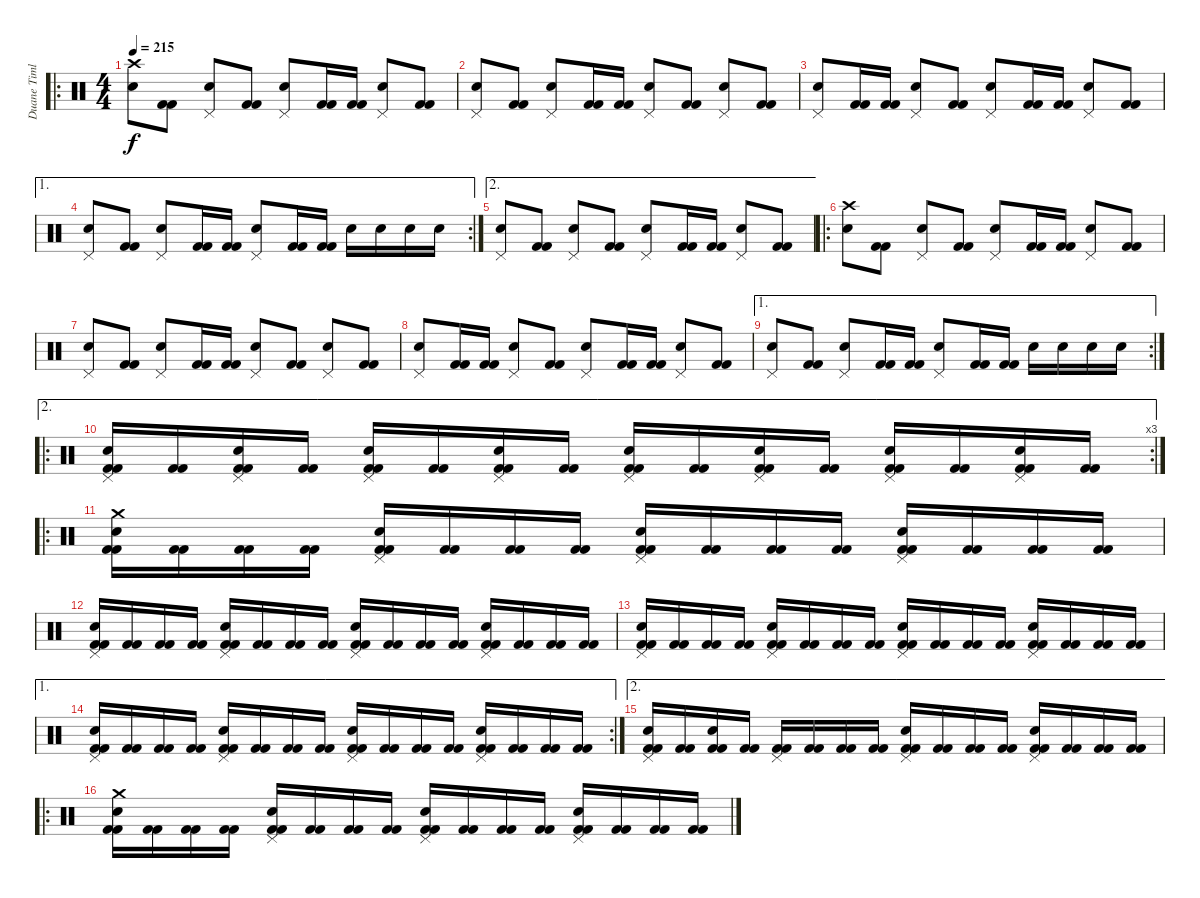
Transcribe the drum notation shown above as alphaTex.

\track ("Duane Timlin" "Duane Timl") {instrument percussion}
\staff {score}
\articulation defaults
\ro
\ts (4 4)
\tempo 215
\clef neutral
\ks c
("Crash high (hit)" "Electric Snare (hit)").8{dy f} ("Kick (hit) 2" "Kick (hit) 2").8 ("Pedal Hi-Hat (hit)" "Electric Snare (hit)").8 ("Kick (hit) 2" "Kick (hit) 2").8 ("Pedal Hi-Hat (hit)" "Electric Snare (hit)").8 ("Kick (hit) 2" "Kick (hit) 2").16 ("Kick (hit) 2" "Kick (hit) 2").16 ("Pedal Hi-Hat (hit)" "Electric Snare (hit)").8 ("Kick (hit) 2" "Kick (hit) 2").8 |
("Pedal Hi-Hat (hit)" "Electric Snare (hit)").8 ("Kick (hit) 2" "Kick (hit) 2").8 ("Pedal Hi-Hat (hit)" "Electric Snare (hit)").8 ("Kick (hit) 2" "Kick (hit) 2").16 ("Kick (hit) 2" "Kick (hit) 2").16 ("Pedal Hi-Hat (hit)" "Electric Snare (hit)").8 ("Kick (hit) 2" "Kick (hit) 2").8 ("Pedal Hi-Hat (hit)" "Electric Snare (hit)").8 ("Kick (hit) 2" "Kick (hit) 2").8 |
("Pedal Hi-Hat (hit)" "Electric Snare (hit)").8 ("Kick (hit) 2" "Kick (hit) 2").16 ("Kick (hit) 2" "Kick (hit) 2").16 ("Pedal Hi-Hat (hit)" "Electric Snare (hit)").8 ("Kick (hit) 2" "Kick (hit) 2").8 ("Pedal Hi-Hat (hit)" "Electric Snare (hit)").8 ("Kick (hit) 2" "Kick (hit) 2").16 ("Kick (hit) 2" "Kick (hit) 2").16 ("Pedal Hi-Hat (hit)" "Electric Snare (hit)").8 ("Kick (hit) 2" "Kick (hit) 2").8 |
\ae 1
\rc 2
("Pedal Hi-Hat (hit)" "Electric Snare (hit)").8 ("Kick (hit) 2" "Kick (hit) 2").8 ("Pedal Hi-Hat (hit)" "Electric Snare (hit)").8 ("Kick (hit) 2" "Kick (hit) 2").16 ("Kick (hit) 2" "Kick (hit) 2").16 ("Pedal Hi-Hat (hit)" "Electric Snare (hit)").8 ("Kick (hit) 2" "Kick (hit) 2").16 ("Kick (hit) 2" "Kick (hit) 2").16 "Electric Snare (hit)".16 "Electric Snare (hit)".16 "Electric Snare (hit)".16 "Electric Snare (hit)".16 |
\ae 2
("Pedal Hi-Hat (hit)" "Electric Snare (hit)").8 ("Kick (hit) 2" "Kick (hit) 2").8 ("Pedal Hi-Hat (hit)" "Electric Snare (hit)").8 ("Kick (hit) 2" "Kick (hit) 2").8 ("Pedal Hi-Hat (hit)" "Electric Snare (hit)").8 ("Kick (hit) 2" "Kick (hit) 2").16 ("Kick (hit) 2" "Kick (hit) 2").16 ("Pedal Hi-Hat (hit)" "Electric Snare (hit)").8 ("Kick (hit) 2" "Kick (hit) 2").8 |
\ro
("Crash high (hit)" "Electric Snare (hit)").8 ("Kick (hit) 2" "Kick (hit) 2").8 ("Pedal Hi-Hat (hit)" "Electric Snare (hit)").8 ("Kick (hit) 2" "Kick (hit) 2").8 ("Pedal Hi-Hat (hit)" "Electric Snare (hit)").8 ("Kick (hit) 2" "Kick (hit) 2").16 ("Kick (hit) 2" "Kick (hit) 2").16 ("Pedal Hi-Hat (hit)" "Electric Snare (hit)").8 ("Kick (hit) 2" "Kick (hit) 2").8 |
("Pedal Hi-Hat (hit)" "Electric Snare (hit)").8 ("Kick (hit) 2" "Kick (hit) 2").8 ("Pedal Hi-Hat (hit)" "Electric Snare (hit)").8 ("Kick (hit) 2" "Kick (hit) 2").16 ("Kick (hit) 2" "Kick (hit) 2").16 ("Pedal Hi-Hat (hit)" "Electric Snare (hit)").8 ("Kick (hit) 2" "Kick (hit) 2").8 ("Pedal Hi-Hat (hit)" "Electric Snare (hit)").8 ("Kick (hit) 2" "Kick (hit) 2").8 |
("Pedal Hi-Hat (hit)" "Electric Snare (hit)").8 ("Kick (hit) 2" "Kick (hit) 2").16 ("Kick (hit) 2" "Kick (hit) 2").16 ("Pedal Hi-Hat (hit)" "Electric Snare (hit)").8 ("Kick (hit) 2" "Kick (hit) 2").8 ("Pedal Hi-Hat (hit)" "Electric Snare (hit)").8 ("Kick (hit) 2" "Kick (hit) 2").16 ("Kick (hit) 2" "Kick (hit) 2").16 ("Pedal Hi-Hat (hit)" "Electric Snare (hit)").8 ("Kick (hit) 2" "Kick (hit) 2").8 |
\ae 1
\rc 2
("Pedal Hi-Hat (hit)" "Electric Snare (hit)").8 ("Kick (hit) 2" "Kick (hit) 2").8 ("Pedal Hi-Hat (hit)" "Electric Snare (hit)").8 ("Kick (hit) 2" "Kick (hit) 2").16 ("Kick (hit) 2" "Kick (hit) 2").16 ("Pedal Hi-Hat (hit)" "Electric Snare (hit)").8 ("Kick (hit) 2" "Kick (hit) 2").16 ("Kick (hit) 2" "Kick (hit) 2").16 "Electric Snare (hit)".16 "Electric Snare (hit)".16 "Electric Snare (hit)".16 "Electric Snare (hit)".16 |
\ae 2
\ro
\rc 3
("Pedal Hi-Hat (hit)" "Electric Snare (hit)" "Kick (hit) 2" "Kick (hit) 2").16 ("Kick (hit) 2" "Kick (hit) 2").16 ("Pedal Hi-Hat (hit)" "Electric Snare (hit)" "Kick (hit) 2" "Kick (hit) 2").16 ("Kick (hit) 2" "Kick (hit) 2").16 ("Pedal Hi-Hat (hit)" "Electric Snare (hit)" "Kick (hit) 2" "Kick (hit) 2").16 ("Kick (hit) 2" "Kick (hit) 2").16 ("Pedal Hi-Hat (hit)" "Electric Snare (hit)" "Kick (hit) 2" "Kick (hit) 2").16 ("Kick (hit) 2" "Kick (hit) 2").16 ("Pedal Hi-Hat (hit)" "Electric Snare (hit)" "Kick (hit) 2" "Kick (hit) 2").16 ("Kick (hit) 2" "Kick (hit) 2").16 ("Pedal Hi-Hat (hit)" "Electric Snare (hit)" "Kick (hit) 2" "Kick (hit) 2").16 ("Kick (hit) 2" "Kick (hit) 2").16 ("Pedal Hi-Hat (hit)" "Electric Snare (hit)" "Kick (hit) 2" "Kick (hit) 2").16 ("Kick (hit) 2" "Kick (hit) 2").16 ("Pedal Hi-Hat (hit)" "Electric Snare (hit)" "Kick (hit) 2" "Kick (hit) 2").16 ("Kick (hit) 2" "Kick (hit) 2").16 |
\ro
("Crash medium (hit)" "Electric Snare (hit)" "Kick (hit) 2" "Kick (hit) 2").16 ("Kick (hit) 2" "Kick (hit) 2").16 ("Kick (hit) 2" "Kick (hit) 2").16 ("Kick (hit) 2" "Kick (hit) 2").16 ("Pedal Hi-Hat (hit)" "Electric Snare (hit)" "Kick (hit) 2" "Kick (hit) 2").16 ("Kick (hit) 2" "Kick (hit) 2").16 ("Kick (hit) 2" "Kick (hit) 2").16 ("Kick (hit) 2" "Kick (hit) 2").16 ("Pedal Hi-Hat (hit)" "Electric Snare (hit)" "Kick (hit) 2" "Kick (hit) 2").16 ("Kick (hit) 2" "Kick (hit) 2").16 ("Kick (hit) 2" "Kick (hit) 2").16 ("Kick (hit) 2" "Kick (hit) 2").16 ("Pedal Hi-Hat (hit)" "Electric Snare (hit)" "Kick (hit) 2" "Kick (hit) 2").16 ("Kick (hit) 2" "Kick (hit) 2").16 ("Kick (hit) 2" "Kick (hit) 2").16 ("Kick (hit) 2" "Kick (hit) 2").16 |
("Pedal Hi-Hat (hit)" "Electric Snare (hit)" "Kick (hit) 2" "Kick (hit) 2").16 ("Kick (hit) 2" "Kick (hit) 2").16 ("Kick (hit) 2" "Kick (hit) 2").16 ("Kick (hit) 2" "Kick (hit) 2").16 ("Pedal Hi-Hat (hit)" "Electric Snare (hit)" "Kick (hit) 2" "Kick (hit) 2").16 ("Kick (hit) 2" "Kick (hit) 2").16 ("Kick (hit) 2" "Kick (hit) 2").16 ("Kick (hit) 2" "Kick (hit) 2").16 ("Pedal Hi-Hat (hit)" "Electric Snare (hit)" "Kick (hit) 2" "Kick (hit) 2").16 ("Kick (hit) 2" "Kick (hit) 2").16 ("Kick (hit) 2" "Kick (hit) 2").16 ("Kick (hit) 2" "Kick (hit) 2").16 ("Pedal Hi-Hat (hit)" "Electric Snare (hit)" "Kick (hit) 2" "Kick (hit) 2").16 ("Kick (hit) 2" "Kick (hit) 2").16 ("Kick (hit) 2" "Kick (hit) 2").16 ("Kick (hit) 2" "Kick (hit) 2").16 |
("Pedal Hi-Hat (hit)" "Electric Snare (hit)" "Kick (hit) 2" "Kick (hit) 2").16 ("Kick (hit) 2" "Kick (hit) 2").16 ("Kick (hit) 2" "Kick (hit) 2").16 ("Kick (hit) 2" "Kick (hit) 2").16 ("Pedal Hi-Hat (hit)" "Electric Snare (hit)" "Kick (hit) 2" "Kick (hit) 2").16 ("Kick (hit) 2" "Kick (hit) 2").16 ("Kick (hit) 2" "Kick (hit) 2").16 ("Kick (hit) 2" "Kick (hit) 2").16 ("Pedal Hi-Hat (hit)" "Electric Snare (hit)" "Kick (hit) 2" "Kick (hit) 2").16 ("Kick (hit) 2" "Kick (hit) 2").16 ("Kick (hit) 2" "Kick (hit) 2").16 ("Kick (hit) 2" "Kick (hit) 2").16 ("Pedal Hi-Hat (hit)" "Electric Snare (hit)" "Kick (hit) 2" "Kick (hit) 2").16 ("Kick (hit) 2" "Kick (hit) 2").16 ("Kick (hit) 2" "Kick (hit) 2").16 ("Kick (hit) 2" "Kick (hit) 2").16 |
\ae 1
\rc 2
("Pedal Hi-Hat (hit)" "Electric Snare (hit)" "Kick (hit) 2" "Kick (hit) 2").16 ("Kick (hit) 2" "Kick (hit) 2").16 ("Kick (hit) 2" "Kick (hit) 2").16 ("Kick (hit) 2" "Kick (hit) 2").16 ("Pedal Hi-Hat (hit)" "Electric Snare (hit)" "Kick (hit) 2" "Kick (hit) 2").16 ("Kick (hit) 2" "Kick (hit) 2").16 ("Kick (hit) 2" "Kick (hit) 2").16 ("Kick (hit) 2" "Kick (hit) 2").16 ("Pedal Hi-Hat (hit)" "Electric Snare (hit)" "Kick (hit) 2" "Kick (hit) 2").16 ("Kick (hit) 2" "Kick (hit) 2").16 ("Kick (hit) 2" "Kick (hit) 2").16 ("Kick (hit) 2" "Kick (hit) 2").16 ("Pedal Hi-Hat (hit)" "Electric Snare (hit)" "Kick (hit) 2" "Kick (hit) 2").16 ("Kick (hit) 2" "Kick (hit) 2").16 ("Kick (hit) 2" "Kick (hit) 2").16 ("Kick (hit) 2" "Kick (hit) 2").16 |
\ae 2
("Pedal Hi-Hat (hit)" "Electric Snare (hit)" "Kick (hit) 2" "Kick (hit) 2").16 ("Kick (hit) 2" "Kick (hit) 2").16 ("Electric Snare (hit)" "Kick (hit) 2" "Kick (hit) 2").16 ("Kick (hit) 2" "Kick (hit) 2").16 ("Pedal Hi-Hat (hit)" "Kick (hit) 2" "Kick (hit) 2").16 ("Kick (hit) 2" "Kick (hit) 2").16 ("Kick (hit) 2" "Kick (hit) 2").16 ("Kick (hit) 2" "Kick (hit) 2").16 ("Pedal Hi-Hat (hit)" "Electric Snare (hit)" "Kick (hit) 2" "Kick (hit) 2").16 ("Kick (hit) 2" "Kick (hit) 2").16 ("Kick (hit) 2" "Kick (hit) 2").16 ("Kick (hit) 2" "Kick (hit) 2").16 ("Pedal Hi-Hat (hit)" "Electric Snare (hit)" "Kick (hit) 2" "Kick (hit) 2").16 ("Kick (hit) 2" "Kick (hit) 2").16 ("Kick (hit) 2" "Kick (hit) 2").16 ("Kick (hit) 2" "Kick (hit) 2").16 |
\ro
("Crash medium (hit)" "Electric Snare (hit)" "Kick (hit) 2" "Kick (hit) 2").16 ("Kick (hit) 2" "Kick (hit) 2").16 ("Kick (hit) 2" "Kick (hit) 2").16 ("Kick (hit) 2" "Kick (hit) 2").16 ("Pedal Hi-Hat (hit)" "Electric Snare (hit)" "Kick (hit) 2" "Kick (hit) 2").16 ("Kick (hit) 2" "Kick (hit) 2").16 ("Kick (hit) 2" "Kick (hit) 2").16 ("Kick (hit) 2" "Kick (hit) 2").16 ("Pedal Hi-Hat (hit)" "Electric Snare (hit)" "Kick (hit) 2" "Kick (hit) 2").16 ("Kick (hit) 2" "Kick (hit) 2").16 ("Kick (hit) 2" "Kick (hit) 2").16 ("Kick (hit) 2" "Kick (hit) 2").16 ("Pedal Hi-Hat (hit)" "Electric Snare (hit)" "Kick (hit) 2" "Kick (hit) 2").16 ("Kick (hit) 2" "Kick (hit) 2").16 ("Kick (hit) 2" "Kick (hit) 2").16 ("Kick (hit) 2" "Kick (hit) 2").16
